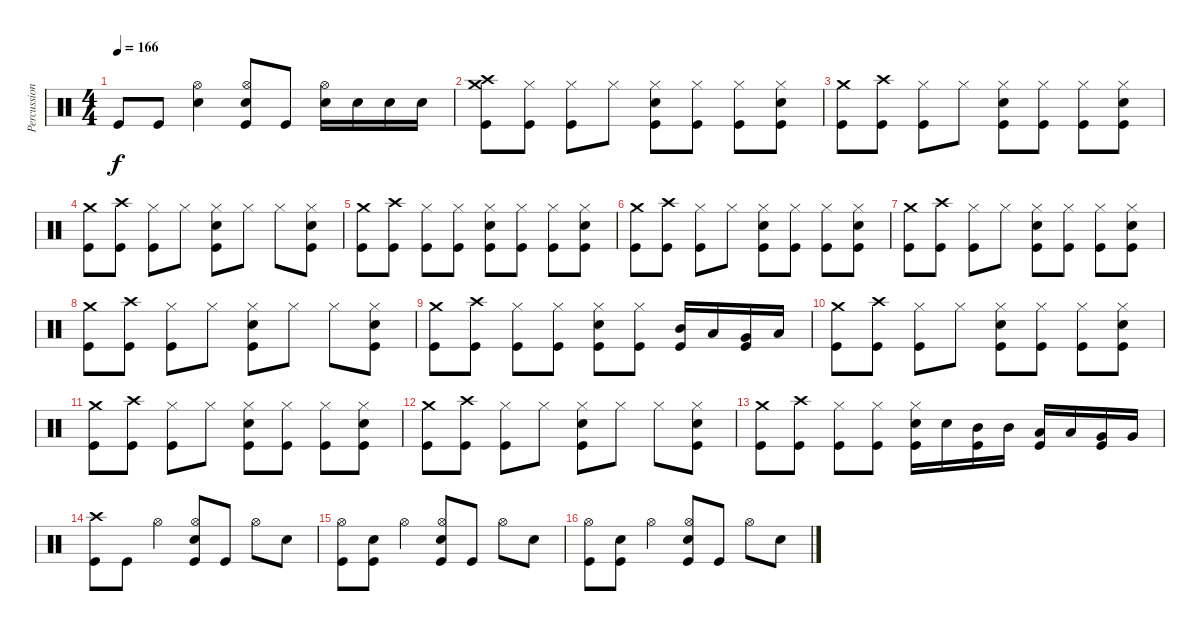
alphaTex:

\track ("Percussion" "Percussion") {instrument percussion}
\staff {score}
\articulation defaults
\ts (4 4)
\tempo 166
\clef neutral
\ks c "Kick (hit)".8{dy f} "Kick (hit)".8
("Hi-Hat (open)" "Electric Snare (hit)").4 ("Hi-Hat (open)" "Electric Snare (hit)" "Kick (hit)").8 "Kick (hit)".8 ("Hi-Hat (open)" "Electric Snare (hit)").16 "Electric Snare (hit)".16 "Electric Snare (hit)".16 "Electric Snare (hit)".16 |
("Crash high (hit)" "Crash medium (hit)" "Kick (hit)").8 ("Hi-Hat (closed)" "Kick (hit)").8 ("Hi-Hat (closed)" "Kick (hit)").8 "Hi-Hat (closed)".8 ("Hi-Hat (closed)" "Electric Snare (hit)" "Kick (hit)").8 ("Hi-Hat (closed)" "Kick (hit)").8 ("Hi-Hat (closed)" "Kick (hit)").8 ("Hi-Hat (closed)" "Electric Snare (hit)" "Kick (hit)").8 |
("Crash medium (hit)" "Kick (hit)").8 ("Crash high (hit)" "Kick (hit)").8 ("Hi-Hat (closed)" "Kick (hit)").8 "Hi-Hat (closed)".8 ("Hi-Hat (closed)" "Electric Snare (hit)" "Kick (hit)").8 ("Hi-Hat (closed)" "Kick (hit)").8 ("Hi-Hat (closed)" "Kick (hit)").8 ("Hi-Hat (closed)" "Electric Snare (hit)" "Kick (hit)").8 |
("Crash medium (hit)" "Kick (hit)").8 ("Crash high (hit)" "Kick (hit)").8 ("Hi-Hat (closed)" "Kick (hit)").8 "Hi-Hat (closed)".8 ("Hi-Hat (closed)" "Electric Snare (hit)" "Kick (hit)").8 "Hi-Hat (closed)".8 "Hi-Hat (closed)".8 ("Hi-Hat (closed)" "Electric Snare (hit)" "Kick (hit)").8 |
("Crash medium (hit)" "Kick (hit)").8 ("Crash high (hit)" "Kick (hit)").8 ("Hi-Hat (closed)" "Kick (hit)").8 ("Hi-Hat (closed)" "Kick (hit)").8 ("Hi-Hat (closed)" "Electric Snare (hit)" "Kick (hit)").8 ("Hi-Hat (closed)" "Kick (hit)").8 ("Hi-Hat (closed)" "Kick (hit)").8 ("Hi-Hat (closed)" "Electric Snare (hit)" "Kick (hit)").8 |
("Crash medium (hit)" "Kick (hit)").8 ("Crash high (hit)" "Kick (hit)").8 ("Hi-Hat (closed)" "Kick (hit)").8 "Hi-Hat (closed)".8 ("Hi-Hat (closed)" "Electric Snare (hit)" "Kick (hit)").8 ("Hi-Hat (closed)" "Kick (hit)").8 ("Hi-Hat (closed)" "Kick (hit)").8 ("Hi-Hat (closed)" "Electric Snare (hit)" "Kick (hit)").8 |
("Crash medium (hit)" "Kick (hit)").8 ("Crash high (hit)" "Kick (hit)").8 ("Hi-Hat (closed)" "Kick (hit)").8 "Hi-Hat (closed)".8 ("Hi-Hat (closed)" "Electric Snare (hit)" "Kick (hit)").8 ("Hi-Hat (closed)" "Kick (hit)").8 ("Hi-Hat (closed)" "Kick (hit)").8 ("Hi-Hat (closed)" "Electric Snare (hit)" "Kick (hit)").8 |
("Crash medium (hit)" "Kick (hit)").8 ("Crash high (hit)" "Kick (hit)").8 ("Hi-Hat (closed)" "Kick (hit)").8 "Hi-Hat (closed)".8 ("Hi-Hat (closed)" "Electric Snare (hit)" "Kick (hit)").8 "Hi-Hat (closed)".8 "Hi-Hat (closed)".8 ("Hi-Hat (closed)" "Electric Snare (hit)" "Kick (hit)").8 |
("Crash medium (hit)" "Kick (hit)").8 ("Crash high (hit)" "Kick (hit)").8 ("Hi-Hat (closed)" "Kick (hit)").8 ("Hi-Hat (closed)" "Kick (hit)").8 ("Hi-Hat (closed)" "Electric Snare (hit)" "Kick (hit)").8 ("Hi-Hat (closed)" "Kick (hit)").8 ("Mid Tom (hit)" "Kick (hit)").16 "Low Tom (hit)".16 ("Very Low Tom (hit)" "Kick (hit)").16 "Low Floor Tom (hit)".16 |
("Crash medium (hit)" "Kick (hit)").8 ("Crash high (hit)" "Kick (hit)").8 ("Hi-Hat (closed)" "Kick (hit)").8 "Hi-Hat (closed)".8 ("Hi-Hat (closed)" "Electric Snare (hit)" "Kick (hit)").8 ("Hi-Hat (closed)" "Kick (hit)").8 ("Hi-Hat (closed)" "Kick (hit)").8 ("Hi-Hat (closed)" "Electric Snare (hit)" "Kick (hit)").8 |
("Crash medium (hit)" "Kick (hit)").8 ("Crash high (hit)" "Kick (hit)").8 ("Hi-Hat (closed)" "Kick (hit)").8 "Hi-Hat (closed)".8 ("Hi-Hat (closed)" "Electric Snare (hit)" "Kick (hit)").8 ("Hi-Hat (closed)" "Kick (hit)").8 ("Hi-Hat (closed)" "Kick (hit)").8 ("Hi-Hat (closed)" "Electric Snare (hit)" "Kick (hit)").8 |
("Crash medium (hit)" "Kick (hit)").8 ("Crash high (hit)" "Kick (hit)").8 ("Hi-Hat (closed)" "Kick (hit)").8 "Hi-Hat (closed)".8 ("Hi-Hat (closed)" "Electric Snare (hit)" "Kick (hit)").8 "Hi-Hat (closed)".8 "Hi-Hat (closed)".8 ("Hi-Hat (closed)" "Electric Snare (hit)" "Kick (hit)").8 |
("Crash medium (hit)" "Kick (hit)").8 ("Crash high (hit)" "Kick (hit)").8 ("Hi-Hat (closed)" "Kick (hit)").8 ("Hi-Hat (closed)" "Kick (hit)").8 ("Hi-Hat (closed)" "Electric Snare (hit)" "Kick (hit)").16 "Electric Snare (hit)".16 ("Mid Tom (hit)" "Kick (hit)").16 "Mid Tom (hit)".16 ("Low Tom (hit)" "Kick (hit)").16 "Low Tom (hit)".16 ("Very Low Tom (hit)" "Kick (hit)").16 "Very Low Tom (hit)".16 |
("Crash high (hit)" "Kick (hit)").8 "Kick (hit)".8 "Hi-Hat (open)".4 ("Hi-Hat (open)" "Electric Snare (hit)" "Kick (hit)").8 "Kick (hit)".8 "Hi-Hat (open)".8 "Electric Snare (hit)".8 |
("Hi-Hat (open)" "Kick (hit)").8 ("Electric Snare (hit)" "Kick (hit)").8 "Hi-Hat (open)".4 ("Hi-Hat (open)" "Electric Snare (hit)" "Kick (hit)").8 "Kick (hit)".8 "Hi-Hat (open)".8 "Electric Snare (hit)".8 |
("Hi-Hat (open)" "Kick (hit)").8 ("Electric Snare (hit)" "Kick (hit)").8 "Hi-Hat (open)".4 ("Hi-Hat (open)" "Electric Snare (hit)" "Kick (hit)").8 "Kick (hit)".8 "Hi-Hat (open)".8 "Electric Snare (hit)".8
